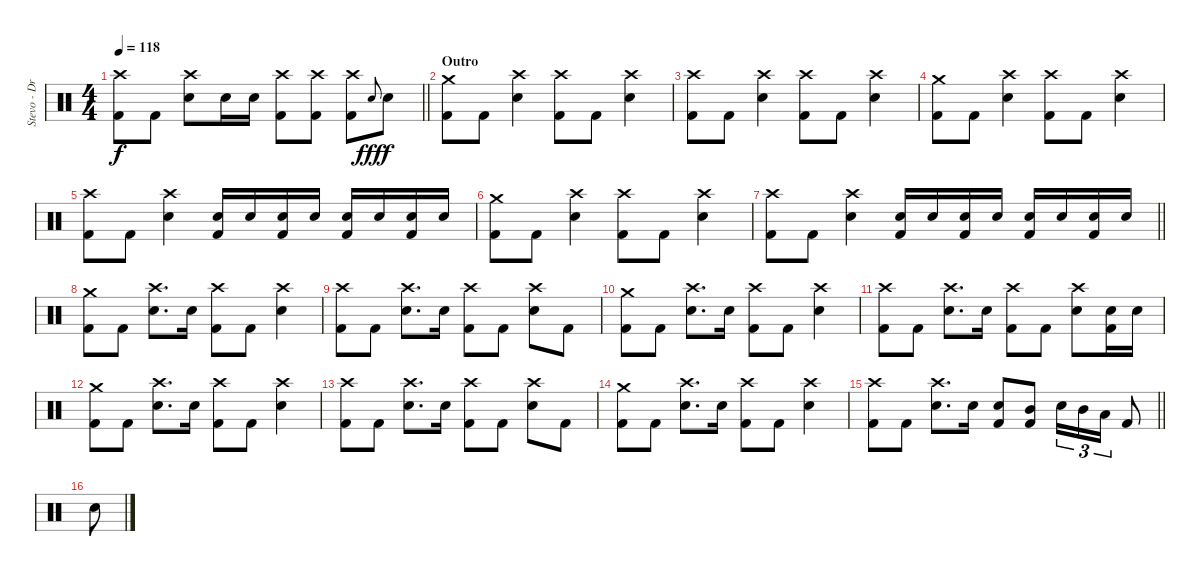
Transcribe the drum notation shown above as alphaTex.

\track ("Stevo - Drums" "Stevo - Dr") {instrument percussion}
\staff {score}
\articulation defaults
\ts (4 4)
\tempo 118
\clef neutral
\barLineRight lightlight
\ks c
("Crash high (hit)" "Kick (hit) 2").8{dy f} "Kick (hit) 2".8 ("Crash high (hit)" "Snare (hit) 2").8 "Snare (hit) 2".16 "Snare (hit) 2".16 ("Crash high (hit)" "Kick (hit) 2").8 ("Crash high (hit)" "Kick (hit) 2").8 ("Crash high (hit)" "Kick (hit) 2").8 "Snare (hit) 2".8{gr onbeat dy fff} "Snare (hit) 2".8{dy f} |
\section ("" "Outro")
("Crash medium (hit)" "Kick (hit) 2").8 "Kick (hit) 2".8 ("Crash high (hit)" "Snare (hit) 2").4 ("Crash high (hit)" "Kick (hit) 2").8 "Kick (hit) 2".8 ("Crash high (hit)" "Snare (hit) 2").4 |
("Crash high (hit)" "Kick (hit) 2").8 "Kick (hit) 2".8 ("Crash high (hit)" "Snare (hit) 2").4 ("Crash high (hit)" "Kick (hit) 2").8 "Kick (hit) 2".8 ("Crash high (hit)" "Snare (hit) 2").4 |
("Crash medium (hit)" "Kick (hit) 2").8 "Kick (hit) 2".8 ("Crash high (hit)" "Snare (hit) 2").4 ("Crash high (hit)" "Kick (hit) 2").8 "Kick (hit) 2".8 ("Crash high (hit)" "Snare (hit) 2").4 |
("Crash high (hit)" "Kick (hit) 2").8 "Kick (hit) 2".8 ("Crash high (hit)" "Snare (hit) 2").4 ("Snare (hit) 2" "Kick (hit) 2").16 "Snare (hit) 2".16 ("Snare (hit) 2" "Kick (hit) 2").16 "Snare (hit) 2".16 ("Snare (hit) 2" "Kick (hit) 2").16 "Snare (hit) 2".16 ("Snare (hit) 2" "Kick (hit) 2").16 "Snare (hit) 2".16 |
("Crash medium (hit)" "Kick (hit) 2").8 "Kick (hit) 2".8 ("Crash high (hit)" "Snare (hit) 2").4 ("Crash high (hit)" "Kick (hit) 2").8 "Kick (hit) 2".8 ("Crash high (hit)" "Snare (hit) 2").4 |
\barLineRight lightlight
("Crash high (hit)" "Kick (hit) 2").8 "Kick (hit) 2".8 ("Crash high (hit)" "Snare (hit) 2").4 ("Snare (hit) 2" "Kick (hit) 2").16 "Snare (hit) 2".16 ("Snare (hit) 2" "Kick (hit) 2").16 "Snare (hit) 2".16 ("Snare (hit) 2" "Kick (hit) 2").16 "Snare (hit) 2".16 ("Snare (hit) 2" "Kick (hit) 2").16 "Snare (hit) 2".16 |
("Crash medium (hit)" "Kick (hit) 2").8 "Kick (hit) 2".8 ("Crash high (hit)" "Snare (hit) 2").8{d} "Snare (hit) 2".16 ("Crash high (hit)" "Kick (hit) 2").8 "Kick (hit) 2".8 ("Crash high (hit)" "Snare (hit) 2").4 |
("Crash high (hit)" "Kick (hit) 2").8 "Kick (hit) 2".8 ("Crash high (hit)" "Snare (hit) 2").8{d} "Snare (hit) 2".16 ("Crash high (hit)" "Kick (hit) 2").8 "Kick (hit) 2".8 ("Crash high (hit)" "Snare (hit) 2").8 "Kick (hit) 2".8 |
("Crash medium (hit)" "Kick (hit) 2").8 "Kick (hit) 2".8 ("Crash high (hit)" "Snare (hit) 2").8{d} "Snare (hit) 2".16 ("Crash high (hit)" "Kick (hit) 2").8 "Kick (hit) 2".8 ("Crash high (hit)" "Snare (hit) 2").4 |
("Crash high (hit)" "Kick (hit) 2").8 "Kick (hit) 2".8 ("Crash high (hit)" "Snare (hit) 2").8{d} "Snare (hit) 2".16 ("Crash high (hit)" "Kick (hit) 2").8 "Kick (hit) 2".8 ("Crash high (hit)" "Snare (hit) 2").8 ("Snare (hit) 2" "Kick (hit) 2").16 "Snare (hit) 2".16 |
("Crash medium (hit)" "Kick (hit) 2").8 "Kick (hit) 2".8 ("Crash high (hit)" "Snare (hit) 2").8{d} "Snare (hit) 2".16 ("Crash high (hit)" "Kick (hit) 2").8 "Kick (hit) 2".8 ("Crash high (hit)" "Snare (hit) 2").4 |
("Crash high (hit)" "Kick (hit) 2").8 "Kick (hit) 2".8 ("Crash high (hit)" "Snare (hit) 2").8{d} "Snare (hit) 2".16 ("Crash high (hit)" "Kick (hit) 2").8 "Kick (hit) 2".8 ("Crash high (hit)" "Snare (hit) 2").8 "Kick (hit) 2".8 |
("Crash medium (hit)" "Kick (hit) 2").8 "Kick (hit) 2".8 ("Crash high (hit)" "Snare (hit) 2").8{d} "Snare (hit) 2".16 ("Crash high (hit)" "Kick (hit) 2").8 "Kick (hit) 2".8 ("Crash high (hit)" "Snare (hit) 2").4 |
\barLineRight lightlight
("Crash high (hit)" "Kick (hit) 2").8 "Kick (hit) 2".8 ("Crash high (hit)" "Snare (hit) 2").8{d} "Snare (hit) 2".16 ("Snare (hit) 2" "Kick (hit) 2").8 ("Mid Tom (hit)" "Kick (hit) 2").8 "Snare (hit) 2".16{tu (3 2)} "Mid Tom (hit)".16{tu (3 2)} "Low Tom (hit)".16{tu (3 2)} "Kick (hit) 2".8 |
"Snare (hit) 2".8
